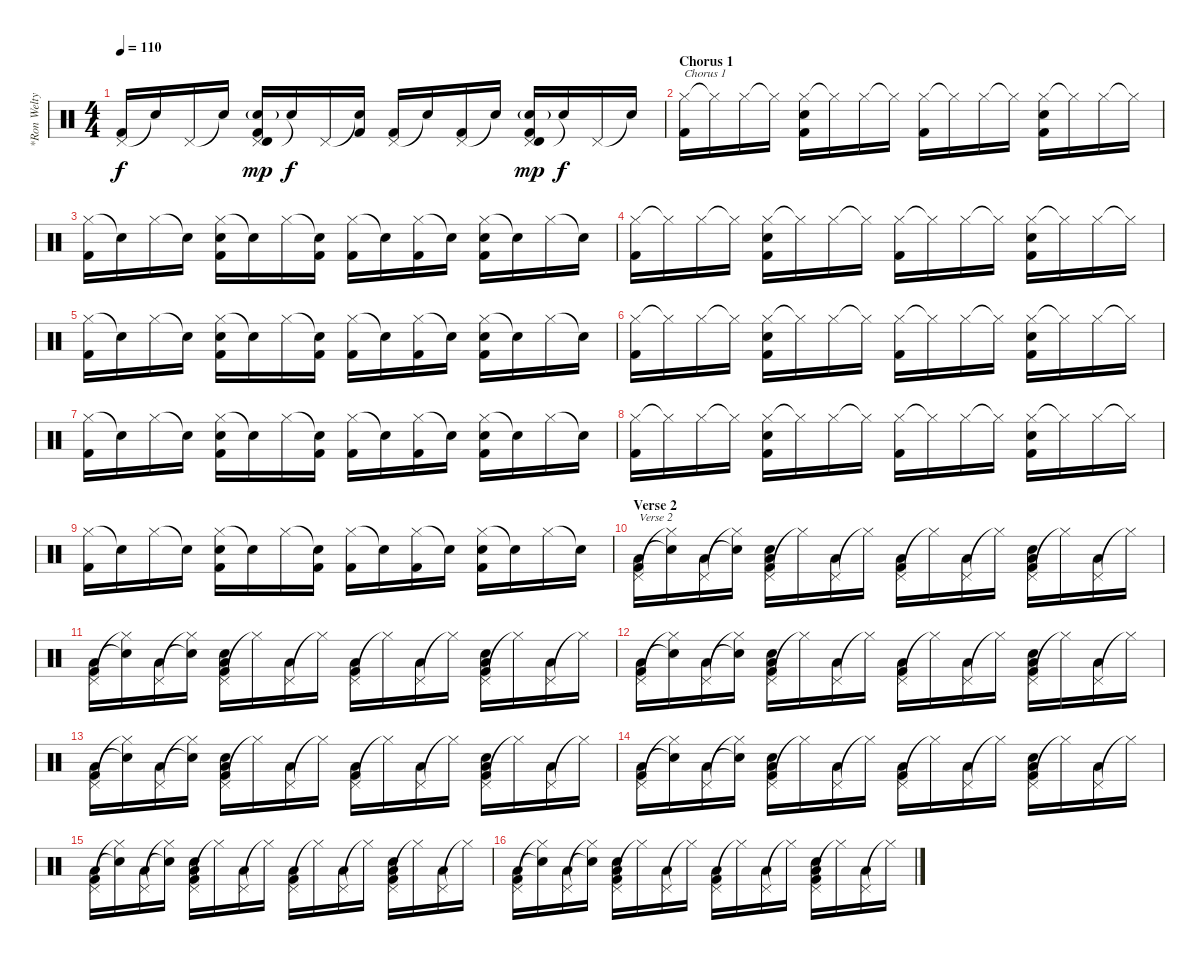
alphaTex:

\track ("*Ron Welty (Ex-drummer)" "*Ron Welty") {instrument percussion}
\staff {score}
\articulation defaults
\ts (4 4)
\tempo 110
\clef neutral
\ks c
("Pedal Hi-Hat (hit)" "Kick (hit) 2").16{dy f} "Snare (hit)"{t}.16 "Pedal Hi-Hat (hit)".16 "Snare (hit)"{t}.16 ("Pedal Hi-Hat (hit)" "Snare (hit) 2"{g} "Timbale high (hit)" "Kick (hit) 2").16{dy mp} "Snare (hit)"{t}.16{dy f} "Pedal Hi-Hat (hit)".16 ("Snare (hit)"{t} "Kick (hit) 2").16 ("Pedal Hi-Hat (hit)" "Kick (hit) 2").16 "Snare (hit)"{t}.16 ("Pedal Hi-Hat (hit)" "Kick (hit) 2").16 "Snare (hit)"{t}.16 ("Pedal Hi-Hat (hit)" "Snare (hit) 2"{g} "Timbale high (hit)" "Kick (hit) 2").16{dy mp} "Snare (hit)"{t}.16{dy f} "Pedal Hi-Hat (hit)".16 "Snare (hit)"{t}.16 |
\section ("" "Chorus 1")
("Hi-Hat (closed)" "Kick (hit) 2").16{txt "Chorus 1"} "Hi-Hat (closed)"{t}.16 "Hi-Hat (closed)".16 "Hi-Hat (closed)"{t}.16 ("Hi-Hat (closed)" "Snare (hit) 2" "Kick (hit) 2").16 "Hi-Hat (closed)"{t}.16 "Hi-Hat (closed)".16 "Hi-Hat (closed)"{t}.16 ("Hi-Hat (closed)" "Kick (hit) 2").16 "Hi-Hat (closed)"{t}.16 "Hi-Hat (closed)".16 "Hi-Hat (closed)"{t}.16 ("Hi-Hat (closed)" "Snare (hit) 2" "Kick (hit) 2").16 "Hi-Hat (closed)"{t}.16 "Hi-Hat (closed)".16 "Hi-Hat (closed)"{t}.16 |
("Hi-Hat (closed)" "Kick (hit) 2").16 "Snare (hit)"{t}.16 "Hi-Hat (closed)".16 "Snare (hit)"{t}.16 ("Hi-Hat (closed)" "Snare (hit) 2" "Kick (hit) 2").16 "Snare (hit)"{t}.16 "Hi-Hat (closed)".16 ("Snare (hit)"{t} "Kick (hit) 2").16 ("Hi-Hat (closed)" "Kick (hit) 2").16 "Snare (hit)"{t}.16 ("Hi-Hat (closed)" "Kick (hit) 2").16 "Snare (hit)"{t}.16 ("Hi-Hat (closed)" "Snare (hit) 2" "Kick (hit) 2").16 "Snare (hit)"{t}.16 "Hi-Hat (closed)".16 "Snare (hit)"{t}.16 |
("Hi-Hat (closed)" "Kick (hit) 2").16 "Hi-Hat (closed)"{t}.16 "Hi-Hat (closed)".16 "Hi-Hat (closed)"{t}.16 ("Hi-Hat (closed)" "Snare (hit) 2" "Kick (hit) 2").16 "Hi-Hat (closed)"{t}.16 "Hi-Hat (closed)".16 "Hi-Hat (closed)"{t}.16 ("Hi-Hat (closed)" "Kick (hit) 2").16 "Hi-Hat (closed)"{t}.16 "Hi-Hat (closed)".16 "Hi-Hat (closed)"{t}.16 ("Hi-Hat (closed)" "Snare (hit) 2" "Kick (hit) 2").16 "Hi-Hat (closed)"{t}.16 "Hi-Hat (closed)".16 "Hi-Hat (closed)"{t}.16 |
("Hi-Hat (closed)" "Kick (hit) 2").16 "Snare (hit)"{t}.16 "Hi-Hat (closed)".16 "Snare (hit)"{t}.16 ("Hi-Hat (closed)" "Snare (hit) 2" "Kick (hit) 2").16 "Snare (hit)"{t}.16 "Hi-Hat (closed)".16 ("Snare (hit)"{t} "Kick (hit) 2").16 ("Hi-Hat (closed)" "Kick (hit) 2").16 "Snare (hit)"{t}.16 ("Hi-Hat (closed)" "Kick (hit) 2").16 "Snare (hit)"{t}.16 ("Hi-Hat (closed)" "Snare (hit) 2" "Kick (hit) 2").16 "Snare (hit)"{t}.16 "Hi-Hat (closed)".16 "Snare (hit)"{t}.16 |
("Hi-Hat (closed)" "Kick (hit) 2").16 "Hi-Hat (closed)"{t}.16 "Hi-Hat (closed)".16 "Hi-Hat (closed)"{t}.16 ("Hi-Hat (closed)" "Snare (hit) 2" "Kick (hit) 2").16 "Hi-Hat (closed)"{t}.16 "Hi-Hat (closed)".16 "Hi-Hat (closed)"{t}.16 ("Hi-Hat (closed)" "Kick (hit) 2").16 "Hi-Hat (closed)"{t}.16 "Hi-Hat (closed)".16 "Hi-Hat (closed)"{t}.16 ("Hi-Hat (closed)" "Snare (hit) 2" "Kick (hit) 2").16 "Hi-Hat (closed)"{t}.16 "Hi-Hat (closed)".16 "Hi-Hat (closed)"{t}.16 |
("Hi-Hat (closed)" "Kick (hit) 2").16 "Snare (hit)"{t}.16 "Hi-Hat (closed)".16 "Snare (hit)"{t}.16 ("Hi-Hat (closed)" "Snare (hit) 2" "Kick (hit) 2").16 "Snare (hit)"{t}.16 "Hi-Hat (closed)".16 ("Snare (hit)"{t} "Kick (hit) 2").16 ("Hi-Hat (closed)" "Kick (hit) 2").16 "Snare (hit)"{t}.16 ("Hi-Hat (closed)" "Kick (hit) 2").16 "Snare (hit)"{t}.16 ("Hi-Hat (closed)" "Snare (hit) 2" "Kick (hit) 2").16 "Snare (hit)"{t}.16 "Hi-Hat (closed)".16 "Snare (hit)"{t}.16 |
("Hi-Hat (closed)" "Kick (hit) 2").16 "Hi-Hat (closed)"{t}.16 "Hi-Hat (closed)".16 "Hi-Hat (closed)"{t}.16 ("Hi-Hat (closed)" "Snare (hit) 2" "Kick (hit) 2").16 "Hi-Hat (closed)"{t}.16 "Hi-Hat (closed)".16 "Hi-Hat (closed)"{t}.16 ("Hi-Hat (closed)" "Kick (hit) 2").16 "Hi-Hat (closed)"{t}.16 "Hi-Hat (closed)".16 "Hi-Hat (closed)"{t}.16 ("Hi-Hat (closed)" "Snare (hit) 2" "Kick (hit) 2").16 "Hi-Hat (closed)"{t}.16 "Hi-Hat (closed)".16 "Hi-Hat (closed)"{t}.16 |
("Hi-Hat (closed)" "Kick (hit) 2").16 "Snare (hit)"{t}.16 "Hi-Hat (closed)".16 "Snare (hit)"{t}.16 ("Hi-Hat (closed)" "Snare (hit) 2" "Kick (hit) 2").16 "Snare (hit)"{t}.16 "Hi-Hat (closed)".16 ("Snare (hit)"{t} "Kick (hit) 2").16 ("Hi-Hat (closed)" "Kick (hit) 2").16 "Snare (hit)"{t}.16 ("Hi-Hat (closed)" "Kick (hit) 2").16 "Snare (hit)"{t}.16 ("Hi-Hat (closed)" "Snare (hit) 2" "Kick (hit) 2").16 "Snare (hit)"{t}.16 "Hi-Hat (closed)".16 "Snare (hit)"{t}.16 |
\section ("" "Verse 2")
("Pedal Hi-Hat (hit)" "Low Floor Tom (hit)" "Kick (hit) 2").16{txt "Verse 2"} ("Hi-Hat (closed)"{t} "Snare (hit)"{t}).16 ("Pedal Hi-Hat (hit)" "Low Floor Tom (hit)").16 ("Hi-Hat (closed)"{t} "Snare (hit)"{t}).16 ("Pedal Hi-Hat (hit)" "Snare (hit) 2" "Low Floor Tom (hit)" "Kick (hit) 2").16 "Hi-Hat (closed)"{t}.16 ("Pedal Hi-Hat (hit)" "Low Floor Tom (hit)").16 "Hi-Hat (closed)"{t}.16 ("Pedal Hi-Hat (hit)" "Low Floor Tom (hit)" "Kick (hit) 2").16 "Hi-Hat (closed)"{t}.16 ("Pedal Hi-Hat (hit)" "Low Floor Tom (hit)").16 "Hi-Hat (closed)"{t}.16 ("Pedal Hi-Hat (hit)" "Snare (hit) 2" "Low Floor Tom (hit)" "Kick (hit) 2").16 "Hi-Hat (closed)"{t}.16 ("Pedal Hi-Hat (hit)" "Low Floor Tom (hit)").16 "Hi-Hat (closed)"{t}.16 |
("Pedal Hi-Hat (hit)" "Low Floor Tom (hit)" "Kick (hit) 2").16 ("Hi-Hat (closed)"{t} "Snare (hit)"{t}).16 ("Pedal Hi-Hat (hit)" "Low Floor Tom (hit)").16 ("Hi-Hat (closed)"{t} "Snare (hit)"{t}).16 ("Pedal Hi-Hat (hit)" "Snare (hit) 2" "Low Floor Tom (hit)" "Kick (hit) 2").16 "Hi-Hat (closed)"{t}.16 ("Pedal Hi-Hat (hit)" "Low Floor Tom (hit)").16 "Hi-Hat (closed)"{t}.16 ("Pedal Hi-Hat (hit)" "Low Floor Tom (hit)" "Kick (hit) 2").16 "Hi-Hat (closed)"{t}.16 ("Pedal Hi-Hat (hit)" "Low Floor Tom (hit)").16 "Hi-Hat (closed)"{t}.16 ("Pedal Hi-Hat (hit)" "Snare (hit) 2" "Low Floor Tom (hit)" "Kick (hit) 2").16 "Hi-Hat (closed)"{t}.16 ("Pedal Hi-Hat (hit)" "Low Floor Tom (hit)").16 "Hi-Hat (closed)"{t}.16 |
("Pedal Hi-Hat (hit)" "Low Floor Tom (hit)" "Kick (hit) 2").16 ("Hi-Hat (closed)"{t} "Snare (hit)"{t}).16 ("Pedal Hi-Hat (hit)" "Low Floor Tom (hit)").16 ("Hi-Hat (closed)"{t} "Snare (hit)"{t}).16 ("Pedal Hi-Hat (hit)" "Snare (hit) 2" "Low Floor Tom (hit)" "Kick (hit) 2").16 "Hi-Hat (closed)"{t}.16 ("Pedal Hi-Hat (hit)" "Low Floor Tom (hit)").16 "Hi-Hat (closed)"{t}.16 ("Pedal Hi-Hat (hit)" "Low Floor Tom (hit)" "Kick (hit) 2").16 "Hi-Hat (closed)"{t}.16 ("Pedal Hi-Hat (hit)" "Low Floor Tom (hit)").16 "Hi-Hat (closed)"{t}.16 ("Pedal Hi-Hat (hit)" "Snare (hit) 2" "Low Floor Tom (hit)" "Kick (hit) 2").16 "Hi-Hat (closed)"{t}.16 ("Pedal Hi-Hat (hit)" "Low Floor Tom (hit)").16 "Hi-Hat (closed)"{t}.16 |
("Pedal Hi-Hat (hit)" "Low Floor Tom (hit)" "Kick (hit) 2").16 ("Hi-Hat (closed)"{t} "Snare (hit)"{t}).16 ("Pedal Hi-Hat (hit)" "Low Floor Tom (hit)").16 ("Hi-Hat (closed)"{t} "Snare (hit)"{t}).16 ("Pedal Hi-Hat (hit)" "Snare (hit) 2" "Low Floor Tom (hit)" "Kick (hit) 2").16 "Hi-Hat (closed)"{t}.16 ("Pedal Hi-Hat (hit)" "Low Floor Tom (hit)").16 "Hi-Hat (closed)"{t}.16 ("Pedal Hi-Hat (hit)" "Low Floor Tom (hit)" "Kick (hit) 2").16 "Hi-Hat (closed)"{t}.16 ("Pedal Hi-Hat (hit)" "Low Floor Tom (hit)").16 "Hi-Hat (closed)"{t}.16 ("Pedal Hi-Hat (hit)" "Snare (hit) 2" "Low Floor Tom (hit)" "Kick (hit) 2").16 "Hi-Hat (closed)"{t}.16 ("Pedal Hi-Hat (hit)" "Low Floor Tom (hit)").16 "Hi-Hat (closed)"{t}.16 |
("Pedal Hi-Hat (hit)" "Low Floor Tom (hit)" "Kick (hit) 2").16 ("Hi-Hat (closed)"{t} "Snare (hit)"{t}).16 ("Pedal Hi-Hat (hit)" "Low Floor Tom (hit)").16 ("Hi-Hat (closed)"{t} "Snare (hit)"{t}).16 ("Pedal Hi-Hat (hit)" "Snare (hit) 2" "Low Floor Tom (hit)" "Kick (hit) 2").16 "Hi-Hat (closed)"{t}.16 ("Pedal Hi-Hat (hit)" "Low Floor Tom (hit)").16 "Hi-Hat (closed)"{t}.16 ("Pedal Hi-Hat (hit)" "Low Floor Tom (hit)" "Kick (hit) 2").16 "Hi-Hat (closed)"{t}.16 ("Pedal Hi-Hat (hit)" "Low Floor Tom (hit)").16 "Hi-Hat (closed)"{t}.16 ("Pedal Hi-Hat (hit)" "Snare (hit) 2" "Low Floor Tom (hit)" "Kick (hit) 2").16 "Hi-Hat (closed)"{t}.16 ("Pedal Hi-Hat (hit)" "Low Floor Tom (hit)").16 "Hi-Hat (closed)"{t}.16 |
("Pedal Hi-Hat (hit)" "Low Floor Tom (hit)" "Kick (hit) 2").16 ("Hi-Hat (closed)"{t} "Snare (hit)"{t}).16 ("Pedal Hi-Hat (hit)" "Low Floor Tom (hit)").16 ("Hi-Hat (closed)"{t} "Snare (hit)"{t}).16 ("Pedal Hi-Hat (hit)" "Snare (hit) 2" "Low Floor Tom (hit)" "Kick (hit) 2").16 "Hi-Hat (closed)"{t}.16 ("Pedal Hi-Hat (hit)" "Low Floor Tom (hit)").16 "Hi-Hat (closed)"{t}.16 ("Pedal Hi-Hat (hit)" "Low Floor Tom (hit)" "Kick (hit) 2").16 "Hi-Hat (closed)"{t}.16 ("Pedal Hi-Hat (hit)" "Low Floor Tom (hit)").16 "Hi-Hat (closed)"{t}.16 ("Pedal Hi-Hat (hit)" "Snare (hit) 2" "Low Floor Tom (hit)" "Kick (hit) 2").16 "Hi-Hat (closed)"{t}.16 ("Pedal Hi-Hat (hit)" "Low Floor Tom (hit)").16 "Hi-Hat (closed)"{t}.16 |
("Pedal Hi-Hat (hit)" "Low Floor Tom (hit)" "Kick (hit) 2").16 ("Hi-Hat (closed)"{t} "Snare (hit)"{t}).16 ("Pedal Hi-Hat (hit)" "Low Floor Tom (hit)").16 ("Hi-Hat (closed)"{t} "Snare (hit)"{t}).16 ("Pedal Hi-Hat (hit)" "Snare (hit) 2" "Low Floor Tom (hit)" "Kick (hit) 2").16 "Hi-Hat (closed)"{t}.16 ("Pedal Hi-Hat (hit)" "Low Floor Tom (hit)").16 "Hi-Hat (closed)"{t}.16 ("Pedal Hi-Hat (hit)" "Low Floor Tom (hit)" "Kick (hit) 2").16 "Hi-Hat (closed)"{t}.16 ("Pedal Hi-Hat (hit)" "Low Floor Tom (hit)").16 "Hi-Hat (closed)"{t}.16 ("Pedal Hi-Hat (hit)" "Snare (hit) 2" "Low Floor Tom (hit)" "Kick (hit) 2").16 "Hi-Hat (closed)"{t}.16 ("Pedal Hi-Hat (hit)" "Low Floor Tom (hit)").16 "Hi-Hat (closed)"{t}.16
